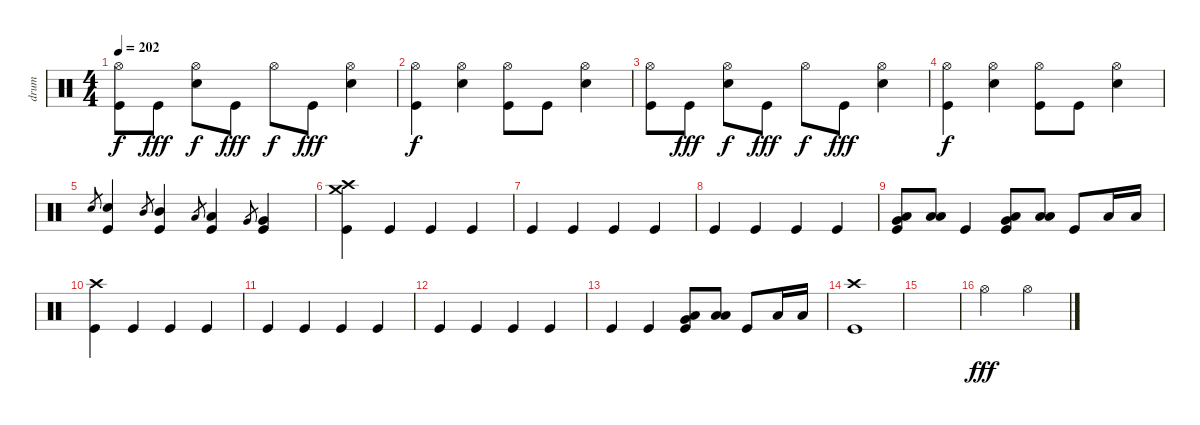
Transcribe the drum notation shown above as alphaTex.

\track ("drum" "drum") {instrument percussion}
\staff {score}
\articulation defaults
\ts (4 4)
\tempo 202
\clef neutral
\ks c
("Hi-Hat (open)" "Kick (hit)").8{dy f} "Kick (hit)".8{dy fff} ("Hi-Hat (open)" "Electric Snare (hit)").8{dy f} "Kick (hit)".8{dy fff} "Hi-Hat (open)".8{dy f} "Kick (hit)".8{dy fff} ("Hi-Hat (open)" "Electric Snare (hit)").4 |
("Hi-Hat (open)" "Kick (hit)").4{dy f} ("Hi-Hat (open)" "Electric Snare (hit)").4 ("Hi-Hat (open)" "Kick (hit)").8 "Kick (hit)".8 ("Hi-Hat (open)" "Electric Snare (hit)").4 |
("Hi-Hat (open)" "Kick (hit)").8 "Kick (hit)".8{dy fff} ("Hi-Hat (open)" "Electric Snare (hit)").8{dy f} "Kick (hit)".8{dy fff} "Hi-Hat (open)".8{dy f} "Kick (hit)".8{dy fff} ("Hi-Hat (open)" "Electric Snare (hit)").4 |
("Hi-Hat (open)" "Kick (hit)").4{dy f} ("Hi-Hat (open)" "Electric Snare (hit)").4 ("Hi-Hat (open)" "Kick (hit)").8 "Kick (hit)".8 ("Hi-Hat (open)" "Electric Snare (hit)").4 |
"Electric Snare (hit)".8{gr} ("Electric Snare (hit)" "Kick (hit)").4 "Mid Tom (hit)".8{gr} ("Mid Tom (hit)" "Kick (hit)").4 "Low Tom (hit)".8{gr} ("Low Tom (hit)" "Kick (hit)").4 "Very Low Tom (hit)".8{gr} ("Very Low Tom (hit)" "Kick (hit)").4 |
("Crash high (hit)" "Crash medium (hit)" "Kick (hit)").4 "Kick (hit)".4 "Kick (hit)".4 "Kick (hit)".4 |
"Kick (hit)".4 "Kick (hit)".4 "Kick (hit)".4 "Kick (hit)".4 |
"Kick (hit)".4 "Kick (hit)".4 "Kick (hit)".4 "Kick (hit)".4 |
("Low Tom (hit)" "Very Low Tom (hit)" "Kick (hit)").8 ("Low Tom (hit)" "Low Tom (hit)").8 "Kick (hit)".4 ("Low Tom (hit)" "Very Low Tom (hit)" "Kick (hit)").8 ("Low Tom (hit)" "Low Tom (hit)").8 "Kick (hit)".8 "Low Tom (hit)".16 "Low Tom (hit)".16 |
("Crash high (hit)" "Kick (hit)").4 "Kick (hit)".4 "Kick (hit)".4 "Kick (hit)".4 |
"Kick (hit)".4 "Kick (hit)".4 "Kick (hit)".4 "Kick (hit)".4 |
"Kick (hit)".4 "Kick (hit)".4 "Kick (hit)".4 "Kick (hit)".4 |
"Kick (hit)".4 "Kick (hit)".4 ("Low Tom (hit)" "Very Low Tom (hit)" "Kick (hit)").8 ("Low Tom (hit)" "Low Tom (hit)").8 "Kick (hit)".8 "Low Tom (hit)".16 "Low Tom (hit)".16 |
("Crash high (hit)" "Kick (hit)").1 |
|
"Hi-Hat (open)".2{dy fff} "Hi-Hat (open)".2
